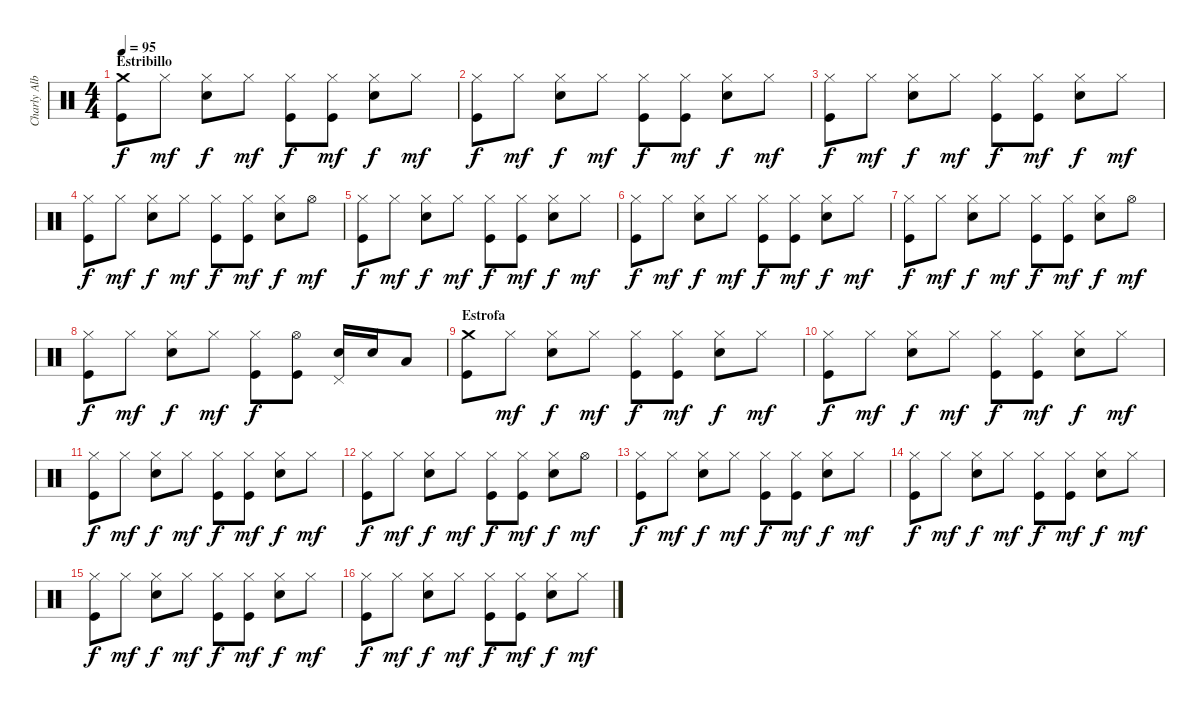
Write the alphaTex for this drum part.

\track ("Charly Alberti BATERIA" "Charly Alb") {instrument percussion}
\staff {score}
\articulation defaults
\ts (4 4)
\section ("" "Estribillo")
\tempo 95
\clef neutral
\ks c
("Kick (hit)" "Crash medium (hit)").8{dy f} "Hi-Hat (closed)".8{dy mf} ("Electric Snare (hit)" "Hi-Hat (closed)").8{dy f} "Hi-Hat (closed)".8{dy mf} ("Kick (hit)" "Hi-Hat (closed)").8{dy f} ("Kick (hit)" "Hi-Hat (closed)").8{dy mf} ("Electric Snare (hit)" "Hi-Hat (closed)").8{dy f} "Hi-Hat (closed)".8{dy mf} |
("Kick (hit)" "Hi-Hat (closed)").8{dy f} "Hi-Hat (closed)".8{dy mf} ("Electric Snare (hit)" "Hi-Hat (closed)").8{dy f} "Hi-Hat (closed)".8{dy mf} ("Kick (hit)" "Hi-Hat (closed)").8{dy f} ("Kick (hit)" "Hi-Hat (closed)").8{dy mf} ("Electric Snare (hit)" "Hi-Hat (closed)").8{dy f} "Hi-Hat (closed)".8{dy mf} |
("Kick (hit)" "Hi-Hat (closed)").8{dy f} "Hi-Hat (closed)".8{dy mf} ("Electric Snare (hit)" "Hi-Hat (closed)").8{dy f} "Hi-Hat (closed)".8{dy mf} ("Kick (hit)" "Hi-Hat (closed)").8{dy f} ("Kick (hit)" "Hi-Hat (closed)").8{dy mf} ("Electric Snare (hit)" "Hi-Hat (closed)").8{dy f} "Hi-Hat (closed)".8{dy mf} |
("Kick (hit)" "Hi-Hat (closed)").8{dy f} "Hi-Hat (closed)".8{dy mf} ("Electric Snare (hit)" "Hi-Hat (closed)").8{dy f} "Hi-Hat (closed)".8{dy mf} ("Kick (hit)" "Hi-Hat (closed)").8{dy f} ("Kick (hit)" "Hi-Hat (closed)").8{dy mf} ("Electric Snare (hit)" "Hi-Hat (closed)").8{dy f} "Hi-Hat (open)".8{dy mf} |
("Kick (hit)" "Hi-Hat (closed)").8{dy f} "Hi-Hat (closed)".8{dy mf} ("Electric Snare (hit)" "Hi-Hat (closed)").8{dy f} "Hi-Hat (closed)".8{dy mf} ("Kick (hit)" "Hi-Hat (closed)").8{dy f} ("Kick (hit)" "Hi-Hat (closed)").8{dy mf} ("Electric Snare (hit)" "Hi-Hat (closed)").8{dy f} "Hi-Hat (closed)".8{dy mf} |
("Kick (hit)" "Hi-Hat (closed)").8{dy f} "Hi-Hat (closed)".8{dy mf} ("Electric Snare (hit)" "Hi-Hat (closed)").8{dy f} "Hi-Hat (closed)".8{dy mf} ("Kick (hit)" "Hi-Hat (closed)").8{dy f} ("Kick (hit)" "Hi-Hat (closed)").8{dy mf} ("Electric Snare (hit)" "Hi-Hat (closed)").8{dy f} "Hi-Hat (closed)".8{dy mf} |
("Kick (hit)" "Hi-Hat (closed)").8{dy f} "Hi-Hat (closed)".8{dy mf} ("Electric Snare (hit)" "Hi-Hat (closed)").8{dy f} "Hi-Hat (closed)".8{dy mf} ("Kick (hit)" "Hi-Hat (closed)").8{dy f} ("Kick (hit)" "Hi-Hat (closed)").8{dy mf} ("Electric Snare (hit)" "Hi-Hat (closed)").8{dy f} "Hi-Hat (open)".8{dy mf} |
("Kick (hit)" "Hi-Hat (closed)").8{dy f} "Hi-Hat (closed)".8{dy mf} ("Electric Snare (hit)" "Hi-Hat (closed)").8{dy f} "Hi-Hat (closed)".8{dy mf} ("Kick (hit)" "Hi-Hat (closed)").8{dy f} ("Kick (hit)" "Hi-Hat (open)").8 ("Electric Snare (hit)" "Pedal Hi-Hat (hit)").16 "Electric Snare (hit)".16 "Low Tom (hit)".8 |
\section ("" "Estrofa")
("Kick (hit)" "Crash medium (hit)").8 "Hi-Hat (closed)".8{dy mf} ("Electric Snare (hit)" "Hi-Hat (closed)").8{dy f} "Hi-Hat (closed)".8{dy mf} ("Kick (hit)" "Hi-Hat (closed)").8{dy f} ("Kick (hit)" "Hi-Hat (closed)").8{dy mf} ("Electric Snare (hit)" "Hi-Hat (closed)").8{dy f} "Hi-Hat (closed)".8{dy mf} |
("Kick (hit)" "Hi-Hat (closed)").8{dy f} "Hi-Hat (closed)".8{dy mf} ("Electric Snare (hit)" "Hi-Hat (closed)").8{dy f} "Hi-Hat (closed)".8{dy mf} ("Kick (hit)" "Hi-Hat (closed)").8{dy f} ("Kick (hit)" "Hi-Hat (closed)").8{dy mf} ("Electric Snare (hit)" "Hi-Hat (closed)").8{dy f} "Hi-Hat (closed)".8{dy mf} |
("Kick (hit)" "Hi-Hat (closed)").8{dy f} "Hi-Hat (closed)".8{dy mf} ("Electric Snare (hit)" "Hi-Hat (closed)").8{dy f} "Hi-Hat (closed)".8{dy mf} ("Kick (hit)" "Hi-Hat (closed)").8{dy f} ("Kick (hit)" "Hi-Hat (closed)").8{dy mf} ("Electric Snare (hit)" "Hi-Hat (closed)").8{dy f} "Hi-Hat (closed)".8{dy mf} |
("Kick (hit)" "Hi-Hat (closed)").8{dy f} "Hi-Hat (closed)".8{dy mf} ("Electric Snare (hit)" "Hi-Hat (closed)").8{dy f} "Hi-Hat (closed)".8{dy mf} ("Kick (hit)" "Hi-Hat (closed)").8{dy f} ("Kick (hit)" "Hi-Hat (closed)").8{dy mf} ("Electric Snare (hit)" "Hi-Hat (closed)").8{dy f} "Hi-Hat (open)".8{dy mf} |
("Kick (hit)" "Hi-Hat (closed)").8{dy f} "Hi-Hat (closed)".8{dy mf} ("Electric Snare (hit)" "Hi-Hat (closed)").8{dy f} "Hi-Hat (closed)".8{dy mf} ("Kick (hit)" "Hi-Hat (closed)").8{dy f} ("Kick (hit)" "Hi-Hat (closed)").8{dy mf} ("Electric Snare (hit)" "Hi-Hat (closed)").8{dy f} "Hi-Hat (closed)".8{dy mf} |
("Kick (hit)" "Hi-Hat (closed)").8{dy f} "Hi-Hat (closed)".8{dy mf} ("Electric Snare (hit)" "Hi-Hat (closed)").8{dy f} "Hi-Hat (closed)".8{dy mf} ("Kick (hit)" "Hi-Hat (closed)").8{dy f} ("Kick (hit)" "Hi-Hat (closed)").8{dy mf} ("Electric Snare (hit)" "Hi-Hat (closed)").8{dy f} "Hi-Hat (closed)".8{dy mf} |
("Kick (hit)" "Hi-Hat (closed)").8{dy f} "Hi-Hat (closed)".8{dy mf} ("Electric Snare (hit)" "Hi-Hat (closed)").8{dy f} "Hi-Hat (closed)".8{dy mf} ("Kick (hit)" "Hi-Hat (closed)").8{dy f} ("Kick (hit)" "Hi-Hat (closed)").8{dy mf} ("Electric Snare (hit)" "Hi-Hat (closed)").8{dy f} "Hi-Hat (closed)".8{dy mf} |
("Kick (hit)" "Hi-Hat (closed)").8{dy f} "Hi-Hat (closed)".8{dy mf} ("Electric Snare (hit)" "Hi-Hat (closed)").8{dy f} "Hi-Hat (closed)".8{dy mf} ("Kick (hit)" "Hi-Hat (closed)").8{dy f} ("Kick (hit)" "Hi-Hat (closed)").8{dy mf} ("Electric Snare (hit)" "Hi-Hat (closed)").8{dy f} "Hi-Hat (closed)".8{dy mf}
